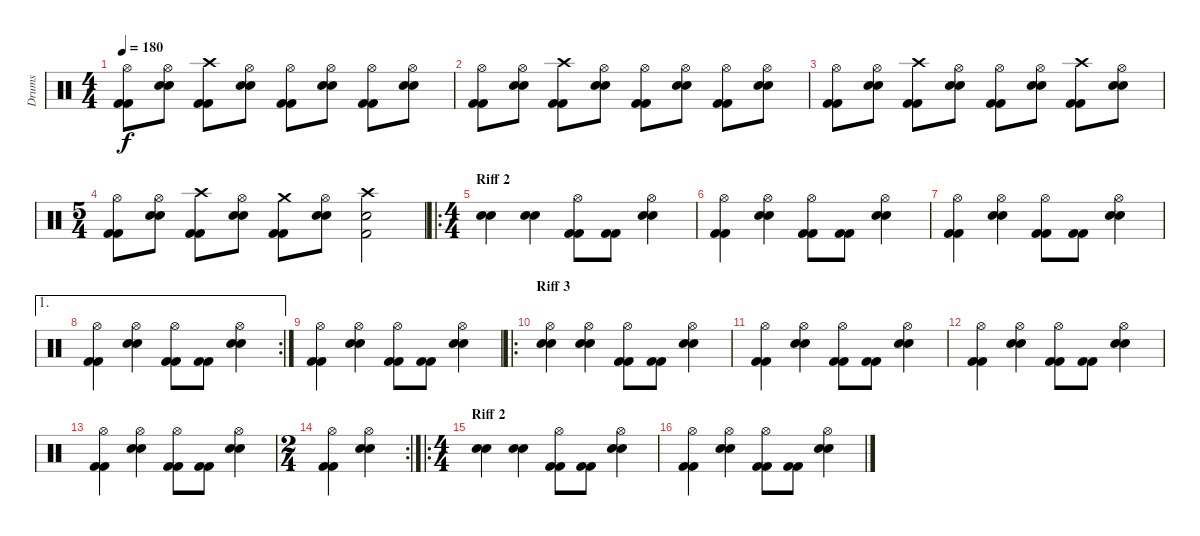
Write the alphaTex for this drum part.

\track ("Drums" "Drums") {instrument percussion}
\staff {score}
\articulation defaults
\ts (4 4)
\tempo 180
\clef neutral
\ks c
("Hi-Hat (open)" "Kick (hit) 2" "Kick (hit) 2").8{dy f} ("Hi-Hat (open)" "Snare (hit) 2" "Snare (hit) 2").8 ("Crash high (hit)" "Kick (hit) 2" "Kick (hit) 2").8 ("Hi-Hat (open)" "Snare (hit) 2" "Snare (hit) 2").8 ("Hi-Hat (open)" "Kick (hit) 2" "Kick (hit) 2").8 ("Hi-Hat (open)" "Snare (hit) 2" "Snare (hit) 2").8 ("Hi-Hat (open)" "Kick (hit) 2" "Kick (hit) 2").8 ("Hi-Hat (open)" "Snare (hit) 2" "Snare (hit) 2").8 |
("Hi-Hat (open)" "Kick (hit) 2" "Kick (hit) 2").8 ("Hi-Hat (open)" "Snare (hit) 2" "Snare (hit) 2").8 ("Crash high (hit)" "Kick (hit) 2" "Kick (hit) 2").8 ("Hi-Hat (open)" "Snare (hit) 2" "Snare (hit) 2").8 ("Hi-Hat (open)" "Kick (hit) 2" "Kick (hit) 2").8 ("Hi-Hat (open)" "Snare (hit) 2" "Snare (hit) 2").8 ("Hi-Hat (open)" "Kick (hit) 2" "Kick (hit) 2").8 ("Hi-Hat (open)" "Snare (hit) 2" "Snare (hit) 2").8 |
("Hi-Hat (open)" "Kick (hit) 2" "Kick (hit) 2").8 ("Hi-Hat (open)" "Snare (hit) 2" "Snare (hit) 2").8 ("Crash high (hit)" "Kick (hit) 2" "Kick (hit) 2").8 ("Hi-Hat (open)" "Snare (hit) 2" "Snare (hit) 2").8 ("Hi-Hat (open)" "Kick (hit) 2" "Kick (hit) 2").8 ("Hi-Hat (open)" "Snare (hit) 2" "Snare (hit) 2").8 ("Crash high (hit)" "Kick (hit) 2" "Kick (hit) 2").8 ("Hi-Hat (open)" "Snare (hit) 2" "Snare (hit) 2").8 |
\ts (5 4)
("Hi-Hat (open)" "Kick (hit) 2" "Kick (hit) 2").8 ("Hi-Hat (open)" "Snare (hit) 2" "Snare (hit) 2").8 ("Crash high (hit)" "Kick (hit) 2" "Kick (hit) 2").8 ("Hi-Hat (open)" "Snare (hit) 2" "Snare (hit) 2").8 ("Crash medium (hit)" "Kick (hit) 2" "Kick (hit) 2").8 ("Hi-Hat (open)" "Snare (hit) 2" "Snare (hit) 2").8 ("Crash high (hit)" "Snare (hit) 2" "Kick (hit) 2").2 |
\ro
\ts (4 4)
\section ("" "Riff 2")
("Snare (hit) 2" "Snare (hit) 2").4 ("Snare (hit) 2" "Snare (hit) 2").4 ("Hi-Hat (open)" "Kick (hit) 2" "Kick (hit) 2").8 ("Kick (hit) 2" "Kick (hit) 2").8 ("Hi-Hat (open)" "Snare (hit) 2" "Snare (hit) 2").4 |
("Hi-Hat (open)" "Kick (hit) 2" "Kick (hit) 2").4 ("Hi-Hat (open)" "Snare (hit) 2" "Snare (hit) 2").4 ("Hi-Hat (open)" "Kick (hit) 2" "Kick (hit) 2").8 ("Kick (hit) 2" "Kick (hit) 2").8 ("Hi-Hat (open)" "Snare (hit) 2" "Snare (hit) 2").4 |
("Hi-Hat (open)" "Kick (hit) 2" "Kick (hit) 2").4 ("Hi-Hat (open)" "Snare (hit) 2" "Snare (hit) 2").4 ("Hi-Hat (open)" "Kick (hit) 2" "Kick (hit) 2").8 ("Kick (hit) 2" "Kick (hit) 2").8 ("Hi-Hat (open)" "Snare (hit) 2" "Snare (hit) 2").4 |
\ae 1
\rc 2
("Hi-Hat (open)" "Kick (hit) 2" "Kick (hit) 2").4 ("Hi-Hat (open)" "Snare (hit) 2" "Snare (hit) 2").4 ("Hi-Hat (open)" "Kick (hit) 2" "Kick (hit) 2").8 ("Kick (hit) 2" "Kick (hit) 2").8 ("Hi-Hat (open)" "Snare (hit) 2" "Snare (hit) 2").4 |
("Hi-Hat (open)" "Kick (hit) 2" "Kick (hit) 2").4 ("Hi-Hat (open)" "Snare (hit) 2" "Snare (hit) 2").4 ("Hi-Hat (open)" "Kick (hit) 2" "Kick (hit) 2").8 ("Kick (hit) 2" "Kick (hit) 2").8 ("Hi-Hat (open)" "Snare (hit) 2" "Snare (hit) 2").4 |
\ro
\section ("" "Riff 3")
("Hi-Hat (open)" "Snare (hit) 2" "Snare (hit) 2").4 ("Hi-Hat (open)" "Snare (hit) 2" "Snare (hit) 2").4 ("Hi-Hat (open)" "Kick (hit) 2" "Kick (hit) 2").8 ("Kick (hit) 2" "Kick (hit) 2").8 ("Hi-Hat (open)" "Snare (hit) 2" "Snare (hit) 2").4 |
("Hi-Hat (open)" "Kick (hit) 2" "Kick (hit) 2").4 ("Hi-Hat (open)" "Snare (hit) 2" "Snare (hit) 2").4 ("Hi-Hat (open)" "Kick (hit) 2" "Kick (hit) 2").8 ("Kick (hit) 2" "Kick (hit) 2").8 ("Hi-Hat (open)" "Snare (hit) 2" "Snare (hit) 2").4 |
("Hi-Hat (open)" "Kick (hit) 2" "Kick (hit) 2").4 ("Hi-Hat (open)" "Snare (hit) 2" "Snare (hit) 2").4 ("Hi-Hat (open)" "Kick (hit) 2" "Kick (hit) 2").8 ("Kick (hit) 2" "Kick (hit) 2").8 ("Hi-Hat (open)" "Snare (hit) 2" "Snare (hit) 2").4 |
("Hi-Hat (open)" "Kick (hit) 2" "Kick (hit) 2").4 ("Hi-Hat (open)" "Snare (hit) 2" "Snare (hit) 2").4 ("Hi-Hat (open)" "Kick (hit) 2" "Kick (hit) 2").8 ("Kick (hit) 2" "Kick (hit) 2").8 ("Hi-Hat (open)" "Snare (hit) 2" "Snare (hit) 2").4 |
\rc 2
\ts (2 4)
("Hi-Hat (open)" "Kick (hit) 2" "Kick (hit) 2").4 ("Hi-Hat (open)" "Snare (hit) 2" "Snare (hit) 2").4 |
\ro
\ts (4 4)
\section ("" "Riff 2")
("Snare (hit) 2" "Snare (hit) 2").4 ("Snare (hit) 2" "Snare (hit) 2").4 ("Hi-Hat (open)" "Kick (hit) 2" "Kick (hit) 2").8 ("Kick (hit) 2" "Kick (hit) 2").8 ("Hi-Hat (open)" "Snare (hit) 2" "Snare (hit) 2").4 |
("Hi-Hat (open)" "Kick (hit) 2" "Kick (hit) 2").4 ("Hi-Hat (open)" "Snare (hit) 2" "Snare (hit) 2").4 ("Hi-Hat (open)" "Kick (hit) 2" "Kick (hit) 2").8 ("Kick (hit) 2" "Kick (hit) 2").8 ("Hi-Hat (open)" "Snare (hit) 2" "Snare (hit) 2").4
